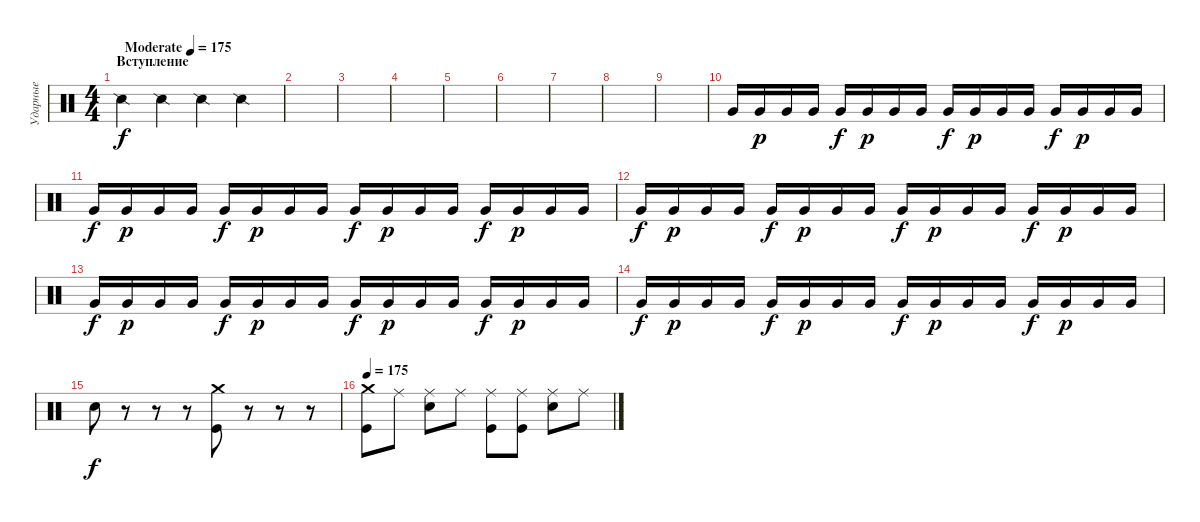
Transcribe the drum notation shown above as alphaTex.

\track ("Ударные" "Ударные") {instrument percussion}
\staff {score}
\articulation defaults
\ts (4 4)
\section ("" "Вступление")
\tempo (175 "Moderate")
\tempo 165
\tempo (175 "Moderate")
\clef neutral
\ks c "Snare (side stick) 2".4{dy f} "Snare (side stick) 2".4 "Snare (side stick) 2".4 "Snare (side stick) 2".4
|
|
|
|
|
|
|
|
|
"Very Low Tom (hit)".16{volume 13} "Very Low Tom (hit)".16{dy p} "Very Low Tom (hit)".16 "Very Low Tom (hit)".16 "Very Low Tom (hit)".16{dy f} "Very Low Tom (hit)".16{dy p} "Very Low Tom (hit)".16 "Very Low Tom (hit)".16 "Very Low Tom (hit)".16{dy f} "Very Low Tom (hit)".16{dy p} "Very Low Tom (hit)".16 "Very Low Tom (hit)".16 "Very Low Tom (hit)".16{dy f} "Very Low Tom (hit)".16{dy p} "Very Low Tom (hit)".16 "Very Low Tom (hit)".16 |
"Very Low Tom (hit)".16{dy f} "Very Low Tom (hit)".16{dy p} "Very Low Tom (hit)".16 "Very Low Tom (hit)".16 "Very Low Tom (hit)".16{dy f} "Very Low Tom (hit)".16{dy p} "Very Low Tom (hit)".16 "Very Low Tom (hit)".16 "Very Low Tom (hit)".16{dy f} "Very Low Tom (hit)".16{dy p} "Very Low Tom (hit)".16 "Very Low Tom (hit)".16 "Very Low Tom (hit)".16{dy f} "Very Low Tom (hit)".16{dy p} "Very Low Tom (hit)".16 "Very Low Tom (hit)".16 |
"Very Low Tom (hit)".16{dy f} "Very Low Tom (hit)".16{dy p} "Very Low Tom (hit)".16 "Very Low Tom (hit)".16 "Very Low Tom (hit)".16{dy f} "Very Low Tom (hit)".16{dy p} "Very Low Tom (hit)".16 "Very Low Tom (hit)".16 "Very Low Tom (hit)".16{dy f} "Very Low Tom (hit)".16{dy p} "Very Low Tom (hit)".16 "Very Low Tom (hit)".16 "Very Low Tom (hit)".16{dy f} "Very Low Tom (hit)".16{dy p} "Very Low Tom (hit)".16 "Very Low Tom (hit)".16 |
"Very Low Tom (hit)".16{dy f} "Very Low Tom (hit)".16{dy p} "Very Low Tom (hit)".16 "Very Low Tom (hit)".16 "Very Low Tom (hit)".16{dy f} "Very Low Tom (hit)".16{dy p} "Very Low Tom (hit)".16 "Very Low Tom (hit)".16 "Very Low Tom (hit)".16{dy f} "Very Low Tom (hit)".16{dy p} "Very Low Tom (hit)".16 "Very Low Tom (hit)".16 "Very Low Tom (hit)".16{dy f} "Very Low Tom (hit)".16{dy p} "Very Low Tom (hit)".16 "Very Low Tom (hit)".16 |
"Very Low Tom (hit)".16{dy f} "Very Low Tom (hit)".16{dy p} "Very Low Tom (hit)".16 "Very Low Tom (hit)".16 "Very Low Tom (hit)".16{dy f} "Very Low Tom (hit)".16{dy p} "Very Low Tom (hit)".16 "Very Low Tom (hit)".16 "Very Low Tom (hit)".16{dy f} "Very Low Tom (hit)".16{dy p} "Very Low Tom (hit)".16 "Very Low Tom (hit)".16 "Very Low Tom (hit)".16{dy f} "Very Low Tom (hit)".16{dy p} "Very Low Tom (hit)".16 "Very Low Tom (hit)".16 |
"Electric Snare (hit)".8{dy f} r.8 r.8 r.8 ("Crash medium (hit)" "Kick (hit)").8 r.8 r.8 r.8 |
\tempo 175
("Crash medium (hit)" "Kick (hit)").8 "Ride (middle)".8 ("Ride (middle)" "Electric Snare (hit)").8 "Ride (middle)".8 ("Ride (middle)" "Kick (hit)").8 ("Ride (middle)" "Kick (hit)").8 ("Ride (middle)" "Electric Snare (hit)").8 "Ride (middle)".8
